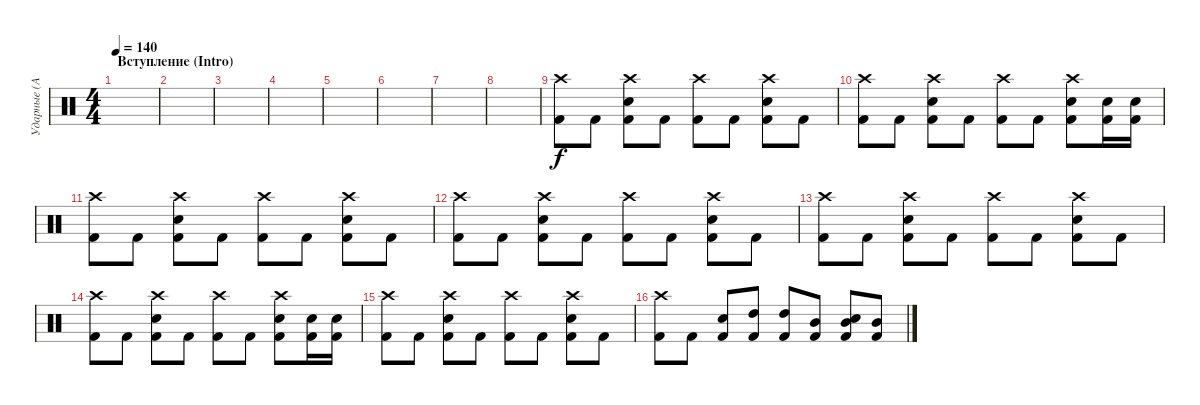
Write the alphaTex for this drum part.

\track ("Ударные (Алексей Барзилович)" "Ударные (А") {instrument percussion}
\staff {score}
\articulation defaults
\ts (4 4)
\section ("" "Вступление (Intro)")
\tempo 140
\clef neutral
\ks c
|
|
|
|
|
|
|
|
("Crash high (hit)" "Kick (hit) 2").8 "Kick (hit) 2".8 ("Crash high (hit)" "Electric Snare (hit)" "Kick (hit) 2").8 "Kick (hit) 2".8 ("Crash high (hit)" "Kick (hit) 2").8 "Kick (hit) 2".8 ("Crash high (hit)" "Electric Snare (hit)" "Kick (hit) 2").8 "Kick (hit) 2".8 |
("Crash high (hit)" "Kick (hit) 2").8 "Kick (hit) 2".8 ("Crash high (hit)" "Electric Snare (hit)" "Kick (hit) 2").8 "Kick (hit) 2".8 ("Crash high (hit)" "Kick (hit) 2").8 "Kick (hit) 2".8 ("Crash high (hit)" "Electric Snare (hit)" "Kick (hit) 2").8 ("Electric Snare (hit)" "Kick (hit) 2").16 ("Electric Snare (hit)" "Kick (hit) 2").16 |
("Crash high (hit)" "Kick (hit) 2").8 "Kick (hit) 2".8 ("Crash high (hit)" "Electric Snare (hit)" "Kick (hit) 2").8 "Kick (hit) 2".8 ("Crash high (hit)" "Kick (hit) 2").8 "Kick (hit) 2".8 ("Crash high (hit)" "Electric Snare (hit)" "Kick (hit) 2").8 "Kick (hit) 2".8 |
("Crash high (hit)" "Kick (hit) 2").8 "Kick (hit) 2".8 ("Crash high (hit)" "Electric Snare (hit)" "Kick (hit) 2").8 "Kick (hit) 2".8 ("Crash high (hit)" "Kick (hit) 2").8 "Kick (hit) 2".8 ("Crash high (hit)" "Electric Snare (hit)" "Kick (hit) 2").8 "Kick (hit) 2".8 |
("Crash high (hit)" "Kick (hit) 2").8 "Kick (hit) 2".8 ("Crash high (hit)" "Electric Snare (hit)" "Kick (hit) 2").8 "Kick (hit) 2".8 ("Crash high (hit)" "Kick (hit) 2").8 "Kick (hit) 2".8 ("Crash high (hit)" "Electric Snare (hit)" "Kick (hit) 2").8 "Kick (hit) 2".8 |
("Crash high (hit)" "Kick (hit) 2").8 "Kick (hit) 2".8 ("Crash high (hit)" "Electric Snare (hit)" "Kick (hit) 2").8 "Kick (hit) 2".8 ("Crash high (hit)" "Kick (hit) 2").8 "Kick (hit) 2".8 ("Crash high (hit)" "Electric Snare (hit)" "Kick (hit) 2").8 ("Electric Snare (hit)" "Kick (hit) 2").16 ("Electric Snare (hit)" "Kick (hit) 2").16 |
("Crash high (hit)" "Kick (hit) 2").8 "Kick (hit) 2".8 ("Crash high (hit)" "Electric Snare (hit)" "Kick (hit) 2").8 "Kick (hit) 2".8 ("Crash high (hit)" "Kick (hit) 2").8 "Kick (hit) 2".8 ("Crash high (hit)" "Electric Snare (hit)" "Kick (hit) 2").8 "Kick (hit) 2".8 |
("Crash high (hit)" "Kick (hit) 2").8 "Kick (hit) 2".8 ("Electric Snare (hit)" "Kick (hit) 2").8 ("High Tom (hit)" "Kick (hit) 2").8 ("High Tom (hit)" "Kick (hit) 2").8 ("Mid Tom (hit)" "Kick (hit) 2").8 ("Mid Tom (hit)" "Electric Snare (hit)" "Kick (hit) 2").8 ("Mid Tom (hit)" "Kick (hit) 2").8
